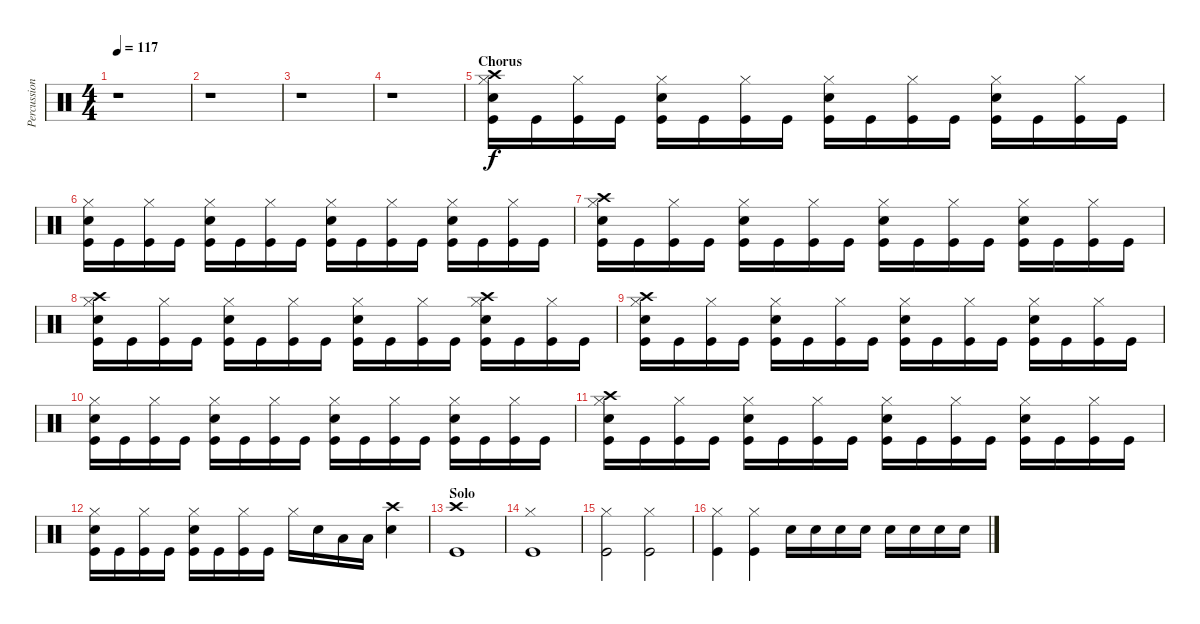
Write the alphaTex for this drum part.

\track ("Percussion" "Percussion") {instrument percussion}
\staff {score}
\articulation defaults
\ts (4 4)
\tempo 117
\clef neutral
\ks c
r.1{dy f} |
r.1 |
r.1 |
r.1 |
\section ("" "Chorus")
("Crash high (hit)" "Hi-Hat (closed)" "Snare (hit) 2" "Kick (hit)").16 "Kick (hit)".16 ("Hi-Hat (closed)" "Kick (hit)").16 "Kick (hit)".16 ("Hi-Hat (closed)" "Snare (hit) 2" "Kick (hit)").16 "Kick (hit)".16 ("Hi-Hat (closed)" "Kick (hit)").16 "Kick (hit)".16 ("Hi-Hat (closed)" "Snare (hit) 2" "Kick (hit)").16 "Kick (hit)".16 ("Hi-Hat (closed)" "Kick (hit)").16 "Kick (hit)".16 ("Hi-Hat (closed)" "Snare (hit) 2" "Kick (hit)").16 "Kick (hit)".16 ("Hi-Hat (closed)" "Kick (hit)").16 "Kick (hit)".16 |
("Hi-Hat (closed)" "Snare (hit) 2" "Kick (hit)").16 "Kick (hit)".16 ("Hi-Hat (closed)" "Kick (hit)").16 "Kick (hit)".16 ("Hi-Hat (closed)" "Snare (hit) 2" "Kick (hit)").16 "Kick (hit)".16 ("Hi-Hat (closed)" "Kick (hit)").16 "Kick (hit)".16 ("Hi-Hat (closed)" "Snare (hit) 2" "Kick (hit)").16 "Kick (hit)".16 ("Hi-Hat (closed)" "Kick (hit)").16 "Kick (hit)".16 ("Hi-Hat (closed)" "Snare (hit) 2" "Kick (hit)").16 "Kick (hit)".16 ("Hi-Hat (closed)" "Kick (hit)").16 "Kick (hit)".16 |
("Crash high (hit)" "Hi-Hat (closed)" "Snare (hit) 2" "Kick (hit)").16 "Kick (hit)".16 ("Hi-Hat (closed)" "Kick (hit)").16 "Kick (hit)".16 ("Hi-Hat (closed)" "Snare (hit) 2" "Kick (hit)").16 "Kick (hit)".16 ("Hi-Hat (closed)" "Kick (hit)").16 "Kick (hit)".16 ("Hi-Hat (closed)" "Snare (hit) 2" "Kick (hit)").16 "Kick (hit)".16 ("Hi-Hat (closed)" "Kick (hit)").16 "Kick (hit)".16 ("Hi-Hat (closed)" "Snare (hit) 2" "Kick (hit)").16 "Kick (hit)".16 ("Hi-Hat (closed)" "Kick (hit)").16 "Kick (hit)".16 |
("Crash high (hit)" "Hi-Hat (closed)" "Snare (hit) 2" "Kick (hit)").16 "Kick (hit)".16 ("Hi-Hat (closed)" "Kick (hit)").16 "Kick (hit)".16 ("Hi-Hat (closed)" "Snare (hit) 2" "Kick (hit)").16 "Kick (hit)".16 ("Hi-Hat (closed)" "Kick (hit)").16 "Kick (hit)".16 ("Hi-Hat (closed)" "Snare (hit) 2" "Kick (hit)").16 "Kick (hit)".16 ("Hi-Hat (closed)" "Kick (hit)").16 "Kick (hit)".16 ("Crash high (hit)" "Hi-Hat (closed)" "Snare (hit) 2" "Kick (hit)").16 "Kick (hit)".16 ("Hi-Hat (closed)" "Kick (hit)").16 "Kick (hit)".16 |
("Crash high (hit)" "Hi-Hat (closed)" "Snare (hit) 2" "Kick (hit)").16 "Kick (hit)".16 ("Hi-Hat (closed)" "Kick (hit)").16 "Kick (hit)".16 ("Hi-Hat (closed)" "Snare (hit) 2" "Kick (hit)").16 "Kick (hit)".16 ("Hi-Hat (closed)" "Kick (hit)").16 "Kick (hit)".16 ("Hi-Hat (closed)" "Snare (hit) 2" "Kick (hit)").16 "Kick (hit)".16 ("Hi-Hat (closed)" "Kick (hit)").16 "Kick (hit)".16 ("Hi-Hat (closed)" "Snare (hit) 2" "Kick (hit)").16 "Kick (hit)".16 ("Hi-Hat (closed)" "Kick (hit)").16 "Kick (hit)".16 |
("Hi-Hat (closed)" "Snare (hit) 2" "Kick (hit)").16 "Kick (hit)".16 ("Hi-Hat (closed)" "Kick (hit)").16 "Kick (hit)".16 ("Hi-Hat (closed)" "Snare (hit) 2" "Kick (hit)").16 "Kick (hit)".16 ("Hi-Hat (closed)" "Kick (hit)").16 "Kick (hit)".16 ("Hi-Hat (closed)" "Snare (hit) 2" "Kick (hit)").16 "Kick (hit)".16 ("Hi-Hat (closed)" "Kick (hit)").16 "Kick (hit)".16 ("Hi-Hat (closed)" "Snare (hit) 2" "Kick (hit)").16 "Kick (hit)".16 ("Hi-Hat (closed)" "Kick (hit)").16 "Kick (hit)".16 |
("Crash high (hit)" "Hi-Hat (closed)" "Snare (hit) 2" "Kick (hit)").16 "Kick (hit)".16 ("Hi-Hat (closed)" "Kick (hit)").16 "Kick (hit)".16 ("Hi-Hat (closed)" "Snare (hit) 2" "Kick (hit)").16 "Kick (hit)".16 ("Hi-Hat (closed)" "Kick (hit)").16 "Kick (hit)".16 ("Hi-Hat (closed)" "Snare (hit) 2" "Kick (hit)").16 "Kick (hit)".16 ("Hi-Hat (closed)" "Kick (hit)").16 "Kick (hit)".16 ("Hi-Hat (closed)" "Snare (hit) 2" "Kick (hit)").16 "Kick (hit)".16 ("Hi-Hat (closed)" "Kick (hit)").16 "Kick (hit)".16 |
("Hi-Hat (closed)" "Snare (hit) 2" "Kick (hit)").16 "Kick (hit)".16 ("Hi-Hat (closed)" "Kick (hit)").16 "Kick (hit)".16 ("Hi-Hat (closed)" "Snare (hit) 2" "Kick (hit)").16 "Kick (hit)".16 ("Hi-Hat (closed)" "Kick (hit)").16 "Kick (hit)".16 "Hi-Hat (closed)".16 "Snare (hit) 2".16 "Low Tom (hit)".16 "Low Tom (hit)".16 ("Crash high (hit)" "Snare (hit) 2").4 |
\section ("" "Solo")
("Crash high (hit)" "Kick (hit)").1 |
("Hi-Hat (closed)" "Kick (hit)").1 |
("Hi-Hat (closed)" "Kick (hit)").2 ("Hi-Hat (closed)" "Kick (hit)").2 |
("Hi-Hat (closed)" "Kick (hit)").4 ("Hi-Hat (closed)" "Kick (hit)").4 "Snare (hit) 2".16 "Snare (hit) 2".16 "Snare (hit) 2".16 "Snare (hit) 2".16 "Snare (hit) 2".16 "Snare (hit) 2".16 "Snare (hit) 2".16 "Snare (hit) 2".16
